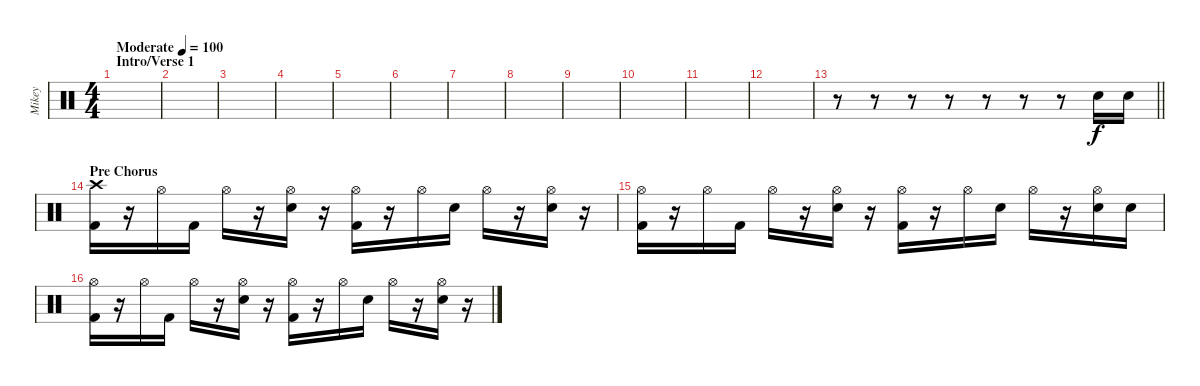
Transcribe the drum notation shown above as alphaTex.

\track ("Mikey" "Mikey") {instrument percussion}
\staff {score}
\articulation defaults
\ts (4 4)
\section ("" "Intro/Verse 1")
\tempo (100 "Moderate")
\clef neutral
\ks c
|
|
|
|
|
|
|
|
|
|
|
|
\barLineRight lightlight
r.8 r.8 r.8 r.8 r.8 r.8 r.8 "Snare (hit) 2".16 "Snare (hit) 2".16 |
\section ("" "Pre Chorus")
("Crash high (hit)" "Kick (hit) 2").16 r.16 "Hi-Hat (open)".16 "Kick (hit) 2".16 "Hi-Hat (open)".16 r.16 ("Hi-Hat (open)" "Snare (hit) 2").16 r.16 ("Hi-Hat (open)" "Kick (hit) 2").16 r.16 "Hi-Hat (open)".16 "Snare (hit) 2".16 "Hi-Hat (open)".16 r.16 ("Hi-Hat (open)" "Snare (hit) 2").16 r.16 |
("Hi-Hat (open)" "Kick (hit) 2").16 r.16 "Hi-Hat (open)".16 "Kick (hit) 2".16 "Hi-Hat (open)".16 r.16 ("Hi-Hat (open)" "Snare (hit) 2").16 r.16 ("Hi-Hat (open)" "Kick (hit) 2").16 r.16 "Hi-Hat (open)".16 "Snare (hit) 2".16 "Hi-Hat (open)".16 r.16 ("Hi-Hat (open)" "Snare (hit) 2").16 "Snare (hit) 2".16 |
("Hi-Hat (open)" "Kick (hit) 2").16 r.16 "Hi-Hat (open)".16 "Kick (hit) 2".16 "Hi-Hat (open)".16 r.16 ("Hi-Hat (open)" "Snare (hit) 2").16 r.16 ("Hi-Hat (open)" "Kick (hit) 2").16 r.16 "Hi-Hat (open)".16 "Snare (hit) 2".16 "Hi-Hat (open)".16 r.16 ("Hi-Hat (open)" "Snare (hit) 2").16 r.16
